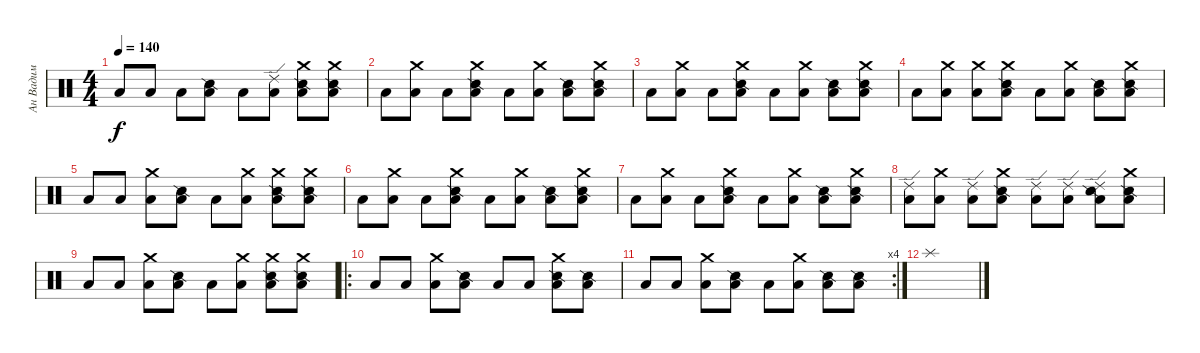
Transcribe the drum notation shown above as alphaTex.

\track ("Ан Вадим" "Ан Вадим") {instrument percussion}
\staff {score}
\articulation defaults
\ts (4 4)
\tempo 140
\clef neutral
\ks c "Low Floor Tom (hit)".8{dy f} "Low Floor Tom (hit)".8 "Low Floor Tom (hit)".8
("Snare (side stick) 2" "Low Floor Tom (hit)").8 "Low Floor Tom (hit)".8 ("Low Floor Tom (hit)" "Ride (edge) 2").8 ("Snare (side stick) 2" "Low Floor Tom (hit)" "Crash medium (hit)").8 ("Snare (side stick) 2" "Low Floor Tom (hit)" "Crash medium (hit)").8 |
"Low Floor Tom (hit)".8 ("Low Floor Tom (hit)" "Crash medium (hit)").8 "Low Floor Tom (hit)".8 ("Snare (side stick) 2" "Low Floor Tom (hit)" "Crash medium (hit)").8 "Low Floor Tom (hit)".8 ("Low Floor Tom (hit)" "Crash medium (hit)").8 ("Snare (side stick) 2" "Low Floor Tom (hit)").8 ("Snare (side stick) 2" "Low Floor Tom (hit)" "Crash medium (hit)").8 |
"Low Floor Tom (hit)".8 ("Low Floor Tom (hit)" "Crash medium (hit)").8 "Low Floor Tom (hit)".8 ("Snare (side stick) 2" "Low Floor Tom (hit)" "Crash medium (hit)").8 "Low Floor Tom (hit)".8 ("Low Floor Tom (hit)" "Crash medium (hit)").8 ("Snare (side stick) 2" "Low Floor Tom (hit)").8 ("Snare (side stick) 2" "Low Floor Tom (hit)" "Crash medium (hit)").8 |
"Low Floor Tom (hit)".8 ("Low Floor Tom (hit)" "Crash medium (hit)").8 ("Low Floor Tom (hit)" "Crash medium (hit)").8 ("Snare (side stick) 2" "Low Floor Tom (hit)" "Crash medium (hit)").8 "Low Floor Tom (hit)".8 ("Low Floor Tom (hit)" "Crash medium (hit)").8 ("Snare (side stick) 2" "Low Floor Tom (hit)").8 ("Snare (side stick) 2" "Low Floor Tom (hit)" "Crash medium (hit)").8 |
"Low Floor Tom (hit)".8 "Low Floor Tom (hit)".8 ("Low Floor Tom (hit)" "Crash medium (hit)").8 ("Snare (side stick) 2" "Low Floor Tom (hit)").8 "Low Floor Tom (hit)".8 ("Low Floor Tom (hit)" "Crash medium (hit)").8 ("Snare (side stick) 2" "Low Floor Tom (hit)" "Crash medium (hit)").8 ("Snare (side stick) 2" "Low Floor Tom (hit)" "Crash medium (hit)").8 |
"Low Floor Tom (hit)".8 ("Low Floor Tom (hit)" "Crash medium (hit)").8 "Low Floor Tom (hit)".8 ("Snare (side stick) 2" "Low Floor Tom (hit)" "Crash medium (hit)").8 "Low Floor Tom (hit)".8 ("Low Floor Tom (hit)" "Crash medium (hit)").8 ("Snare (side stick) 2" "Low Floor Tom (hit)").8 ("Snare (side stick) 2" "Low Floor Tom (hit)" "Crash medium (hit)").8 |
"Low Floor Tom (hit)".8 ("Low Floor Tom (hit)" "Crash medium (hit)").8 "Low Floor Tom (hit)".8 ("Snare (side stick) 2" "Low Floor Tom (hit)" "Crash medium (hit)").8 "Low Floor Tom (hit)".8 ("Low Floor Tom (hit)" "Crash medium (hit)").8 ("Snare (side stick) 2" "Low Floor Tom (hit)").8 ("Snare (side stick) 2" "Low Floor Tom (hit)" "Crash medium (hit)").8 |
("Low Floor Tom (hit)" "Ride (edge) 2").8 ("Low Floor Tom (hit)" "Crash medium (hit)").8 ("Low Floor Tom (hit)" "Ride (edge) 2").8 ("Snare (side stick) 2" "Low Floor Tom (hit)" "Crash medium (hit)").8 ("Low Floor Tom (hit)" "Ride (edge) 2").8 ("Low Floor Tom (hit)" "Ride (edge) 2").8 ("Snare (side stick) 2" "Low Floor Tom (hit)" "Ride (edge) 2").8 ("Snare (side stick) 2" "Low Floor Tom (hit)" "Crash medium (hit)").8 |
"Low Floor Tom (hit)".8 "Low Floor Tom (hit)".8 ("Low Floor Tom (hit)" "Crash medium (hit)").8 ("Snare (side stick) 2" "Low Floor Tom (hit)").8 "Low Floor Tom (hit)".8 ("Low Floor Tom (hit)" "Crash medium (hit)").8 ("Snare (side stick) 2" "Low Floor Tom (hit)" "Crash medium (hit)").8 ("Snare (side stick) 2" "Low Floor Tom (hit)" "Crash medium (hit)").8 |
\ro "Low Floor Tom (hit)".8 "Low Floor Tom (hit)".8
("Crash medium (hit)" "Low Floor Tom (hit)").8 ("Snare (side stick) 2" "Low Floor Tom (hit)").8 "Low Floor Tom (hit)".8 "Low Floor Tom (hit)".8 ("Snare (side stick) 2" "Crash medium (hit)" "Low Floor Tom (hit)").8 ("Snare (side stick) 2" "Low Floor Tom (hit)").8 |
\rc 4 "Low Floor Tom (hit)".8 "Low Floor Tom (hit)".8
("Crash medium (hit)" "Low Floor Tom (hit)").8 ("Snare (side stick) 2" "Low Floor Tom (hit)").8 "Low Floor Tom (hit)".8 ("Crash medium (hit)" "Low Floor Tom (hit)").8 ("Snare (side stick) 2" "Low Floor Tom (hit)").8 ("Snare (side stick) 2" "Low Floor Tom (hit)").8 |
"Splash (hit)".1
